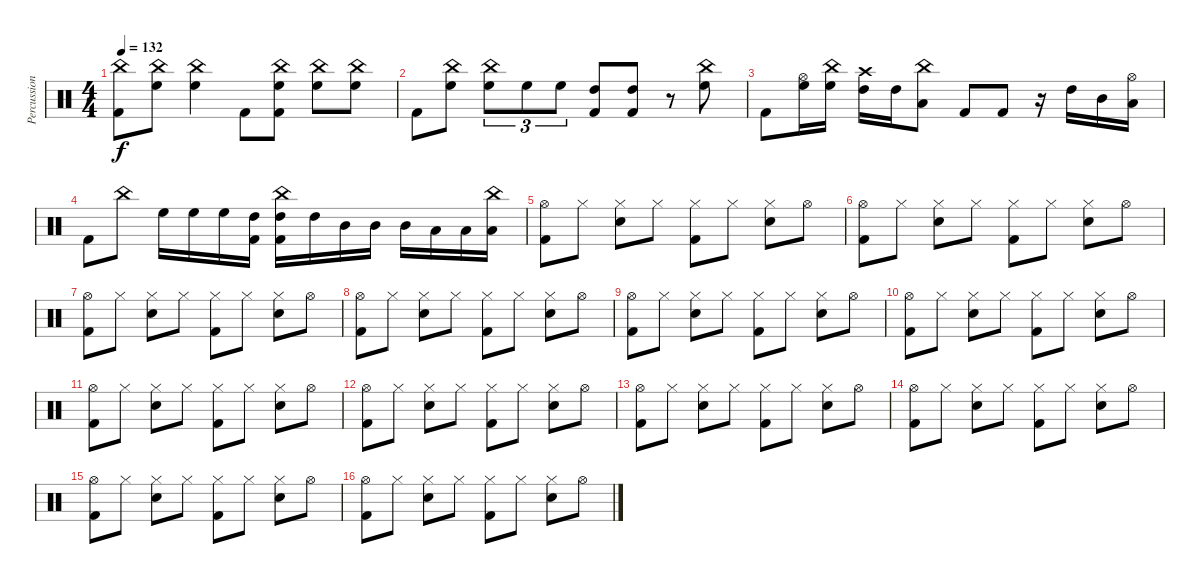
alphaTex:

\track ("Percussions" "Percussion") {instrument percussion}
\staff {score}
\articulation defaults
\ts (4 4)
\tempo 132
\clef neutral
\ks c
("China (hit)" "Kick (hit) 2").8{dy f} ("China (hit)" "High Floor Tom (hit)").8 ("China (hit)" "High Floor Tom (hit)").4 "Kick (hit) 2".8 ("China (hit)" "High Floor Tom (hit)" "Kick (hit) 2").8 ("China (hit)" "High Floor Tom (hit)").8 ("China (hit)" "High Floor Tom (hit)").8 |
"Kick (hit) 2".8 ("China (hit)" "High Floor Tom (hit)").8 ("China (hit)" "High Floor Tom (hit)").8{tu (3 2)} "High Floor Tom (hit)".8{tu (3 2)} "High Floor Tom (hit)".8{tu (3 2)} ("High Tom (hit)" "Kick (hit) 2").8 ("High Tom (hit)" "Kick (hit) 2").8 r.8 ("China (hit)" "High Floor Tom (hit)").8 |
"Kick (hit) 2".8 ("Hi-Hat (open)" "High Floor Tom (hit)").16 ("China (hit)" "High Floor Tom (hit)").16 ("Crash high (hit)" "High Tom (hit)").16 "High Tom (hit)".16 ("China (hit)" "Low Tom (hit)").8 "Kick (hit) 2".8 "Kick (hit) 2".8 r.16 "High Tom (hit)".16 "Mid Tom (hit)".16 ("Hi-Hat (open)" "Low Tom (hit)").16 |
"Kick (hit) 2".8 "China (hit)".8 "High Floor Tom (hit)".16 "High Floor Tom (hit)".16 "High Floor Tom (hit)".16 ("High Tom (hit)" "Kick (hit) 2").16 ("China (hit)" "High Tom (hit)" "Kick (hit) 2").16 "High Tom (hit)".16 "Mid Tom (hit)".16 "Mid Tom (hit)".16 "Mid Tom (hit)".16 "Low Tom (hit)".16 "Low Tom (hit)".16 ("China (hit)" "Low Tom (hit)").16 |
("Hi-Hat (open)" "Kick (hit) 2").8 "Hi-Hat (closed)".8 ("Hi-Hat (closed)" "Snare (hit) 2").8 "Hi-Hat (closed)".8 ("Hi-Hat (closed)" "Kick (hit) 2").8 "Hi-Hat (closed)".8 ("Hi-Hat (closed)" "Snare (hit) 2").8 "Hi-Hat (open)".8 |
("Hi-Hat (open)" "Kick (hit) 2").8 "Hi-Hat (closed)".8 ("Hi-Hat (closed)" "Snare (hit) 2").8 "Hi-Hat (closed)".8 ("Hi-Hat (closed)" "Kick (hit) 2").8 "Hi-Hat (closed)".8 ("Hi-Hat (closed)" "Snare (hit) 2").8 "Hi-Hat (open)".8 |
("Hi-Hat (open)" "Kick (hit) 2").8 "Hi-Hat (closed)".8 ("Hi-Hat (closed)" "Snare (hit) 2").8 "Hi-Hat (closed)".8 ("Hi-Hat (closed)" "Kick (hit) 2").8 "Hi-Hat (closed)".8 ("Hi-Hat (closed)" "Snare (hit) 2").8 "Hi-Hat (open)".8 |
("Hi-Hat (open)" "Kick (hit) 2").8 "Hi-Hat (closed)".8 ("Hi-Hat (closed)" "Snare (hit) 2").8 "Hi-Hat (closed)".8 ("Hi-Hat (closed)" "Kick (hit) 2").8 "Hi-Hat (closed)".8 ("Hi-Hat (closed)" "Snare (hit) 2").8 "Hi-Hat (open)".8 |
("Hi-Hat (open)" "Kick (hit) 2").8 "Hi-Hat (closed)".8 ("Hi-Hat (closed)" "Snare (hit) 2").8 "Hi-Hat (closed)".8 ("Hi-Hat (closed)" "Kick (hit) 2").8 "Hi-Hat (closed)".8 ("Hi-Hat (closed)" "Snare (hit) 2").8 "Hi-Hat (open)".8 |
("Hi-Hat (open)" "Kick (hit) 2").8 "Hi-Hat (closed)".8 ("Hi-Hat (closed)" "Snare (hit) 2").8 "Hi-Hat (closed)".8 ("Hi-Hat (closed)" "Kick (hit) 2").8 "Hi-Hat (closed)".8 ("Hi-Hat (closed)" "Snare (hit) 2").8 "Hi-Hat (open)".8 |
("Hi-Hat (open)" "Kick (hit) 2").8 "Hi-Hat (closed)".8 ("Hi-Hat (closed)" "Snare (hit) 2").8 "Hi-Hat (closed)".8 ("Hi-Hat (closed)" "Kick (hit) 2").8 "Hi-Hat (closed)".8 ("Hi-Hat (closed)" "Snare (hit) 2").8 "Hi-Hat (open)".8 |
("Hi-Hat (open)" "Kick (hit) 2").8 "Hi-Hat (closed)".8 ("Hi-Hat (closed)" "Snare (hit) 2").8 "Hi-Hat (closed)".8 ("Hi-Hat (closed)" "Kick (hit) 2").8 "Hi-Hat (closed)".8 ("Hi-Hat (closed)" "Snare (hit) 2").8 "Hi-Hat (open)".8 |
("Hi-Hat (open)" "Kick (hit) 2").8 "Hi-Hat (closed)".8 ("Hi-Hat (closed)" "Snare (hit) 2").8 "Hi-Hat (closed)".8 ("Hi-Hat (closed)" "Kick (hit) 2").8 "Hi-Hat (closed)".8 ("Hi-Hat (closed)" "Snare (hit) 2").8 "Hi-Hat (open)".8 |
("Hi-Hat (open)" "Kick (hit) 2").8 "Hi-Hat (closed)".8 ("Hi-Hat (closed)" "Snare (hit) 2").8 "Hi-Hat (closed)".8 ("Hi-Hat (closed)" "Kick (hit) 2").8 "Hi-Hat (closed)".8 ("Hi-Hat (closed)" "Snare (hit) 2").8 "Hi-Hat (open)".8 |
("Hi-Hat (open)" "Kick (hit) 2").8 "Hi-Hat (closed)".8 ("Hi-Hat (closed)" "Snare (hit) 2").8 "Hi-Hat (closed)".8 ("Hi-Hat (closed)" "Kick (hit) 2").8 "Hi-Hat (closed)".8 ("Hi-Hat (closed)" "Snare (hit) 2").8 "Hi-Hat (open)".8 |
("Hi-Hat (open)" "Kick (hit) 2").8 "Hi-Hat (closed)".8 ("Hi-Hat (closed)" "Snare (hit) 2").8 "Hi-Hat (closed)".8 ("Hi-Hat (closed)" "Kick (hit) 2").8 "Hi-Hat (closed)".8 ("Hi-Hat (closed)" "Snare (hit) 2").8 "Hi-Hat (open)".8
